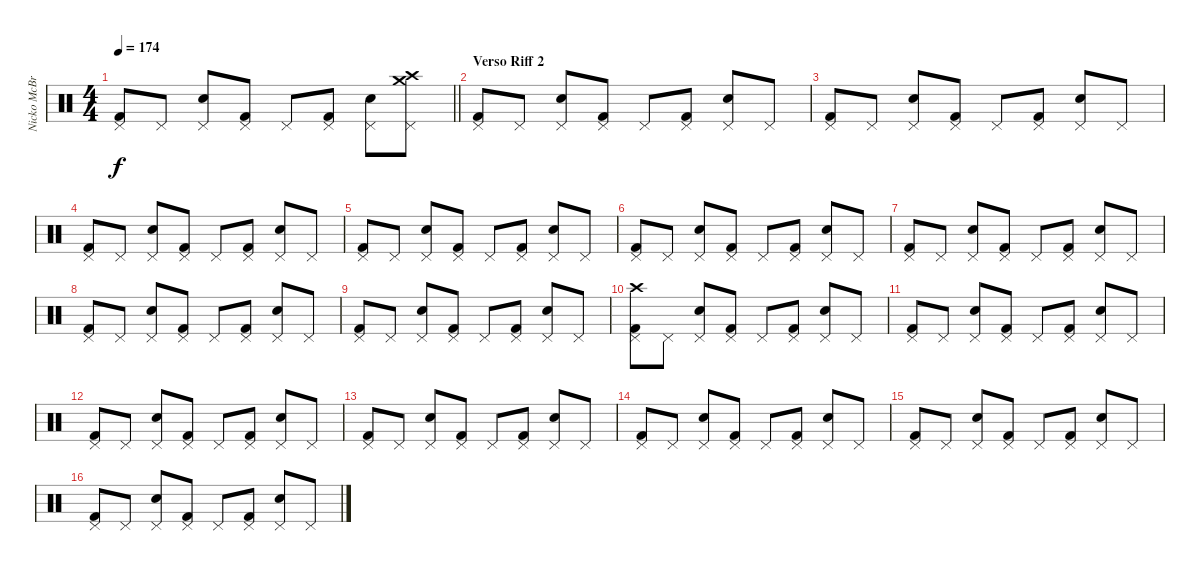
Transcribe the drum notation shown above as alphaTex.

\track ("Nicko McBrain" "Nicko McBr") {instrument percussion}
\staff {score}
\articulation defaults
\ts (4 4)
\tempo 174
\clef neutral
\barLineRight lightlight
\ks c
("Kick (hit) 2" "Pedal Hi-Hat (hit)").8{dy f} "Pedal Hi-Hat (hit)".8 ("Snare (hit) 2" "Pedal Hi-Hat (hit)").8 ("Kick (hit) 2" "Pedal Hi-Hat (hit)").8 "Pedal Hi-Hat (hit)".8 ("Kick (hit) 2" "Pedal Hi-Hat (hit)").8 ("Snare (hit) 2" "Pedal Hi-Hat (hit)").8 ("Pedal Hi-Hat (hit)" "Crash high (hit)" "Crash medium (hit)").8 |
\section ("" "Verso Riff 2")
("Kick (hit) 2" "Pedal Hi-Hat (hit)").8 "Pedal Hi-Hat (hit)".8 ("Snare (hit) 2" "Pedal Hi-Hat (hit)").8 ("Kick (hit) 2" "Pedal Hi-Hat (hit)").8 "Pedal Hi-Hat (hit)".8 ("Kick (hit) 2" "Pedal Hi-Hat (hit)").8 ("Snare (hit) 2" "Pedal Hi-Hat (hit)").8 "Pedal Hi-Hat (hit)".8 |
("Kick (hit) 2" "Pedal Hi-Hat (hit)").8 "Pedal Hi-Hat (hit)".8 ("Snare (hit) 2" "Pedal Hi-Hat (hit)").8 ("Kick (hit) 2" "Pedal Hi-Hat (hit)").8 "Pedal Hi-Hat (hit)".8 ("Kick (hit) 2" "Pedal Hi-Hat (hit)").8 ("Snare (hit) 2" "Pedal Hi-Hat (hit)").8 "Pedal Hi-Hat (hit)".8 |
("Kick (hit) 2" "Pedal Hi-Hat (hit)").8 "Pedal Hi-Hat (hit)".8 ("Snare (hit) 2" "Pedal Hi-Hat (hit)").8 ("Kick (hit) 2" "Pedal Hi-Hat (hit)").8 "Pedal Hi-Hat (hit)".8 ("Kick (hit) 2" "Pedal Hi-Hat (hit)").8 ("Snare (hit) 2" "Pedal Hi-Hat (hit)").8 "Pedal Hi-Hat (hit)".8 |
("Kick (hit) 2" "Pedal Hi-Hat (hit)").8 "Pedal Hi-Hat (hit)".8 ("Snare (hit) 2" "Pedal Hi-Hat (hit)").8 ("Kick (hit) 2" "Pedal Hi-Hat (hit)").8 "Pedal Hi-Hat (hit)".8 ("Kick (hit) 2" "Pedal Hi-Hat (hit)").8 ("Snare (hit) 2" "Pedal Hi-Hat (hit)").8 "Pedal Hi-Hat (hit)".8 |
("Kick (hit) 2" "Pedal Hi-Hat (hit)").8 "Pedal Hi-Hat (hit)".8 ("Snare (hit) 2" "Pedal Hi-Hat (hit)").8 ("Kick (hit) 2" "Pedal Hi-Hat (hit)").8 "Pedal Hi-Hat (hit)".8 ("Kick (hit) 2" "Pedal Hi-Hat (hit)").8 ("Snare (hit) 2" "Pedal Hi-Hat (hit)").8 "Pedal Hi-Hat (hit)".8 |
("Kick (hit) 2" "Pedal Hi-Hat (hit)").8 "Pedal Hi-Hat (hit)".8 ("Snare (hit) 2" "Pedal Hi-Hat (hit)").8 ("Kick (hit) 2" "Pedal Hi-Hat (hit)").8 "Pedal Hi-Hat (hit)".8 ("Kick (hit) 2" "Pedal Hi-Hat (hit)").8 ("Snare (hit) 2" "Pedal Hi-Hat (hit)").8 "Pedal Hi-Hat (hit)".8 |
("Kick (hit) 2" "Pedal Hi-Hat (hit)").8 "Pedal Hi-Hat (hit)".8 ("Snare (hit) 2" "Pedal Hi-Hat (hit)").8 ("Kick (hit) 2" "Pedal Hi-Hat (hit)").8 "Pedal Hi-Hat (hit)".8 ("Kick (hit) 2" "Pedal Hi-Hat (hit)").8 ("Snare (hit) 2" "Pedal Hi-Hat (hit)").8 "Pedal Hi-Hat (hit)".8 |
("Kick (hit) 2" "Pedal Hi-Hat (hit)").8 "Pedal Hi-Hat (hit)".8 ("Snare (hit) 2" "Pedal Hi-Hat (hit)").8 ("Kick (hit) 2" "Pedal Hi-Hat (hit)").8 "Pedal Hi-Hat (hit)".8 ("Kick (hit) 2" "Pedal Hi-Hat (hit)").8 ("Snare (hit) 2" "Pedal Hi-Hat (hit)").8 "Pedal Hi-Hat (hit)".8 |
("Kick (hit) 2" "Pedal Hi-Hat (hit)" "Crash high (hit)").8 "Pedal Hi-Hat (hit)".8 ("Snare (hit) 2" "Pedal Hi-Hat (hit)").8 ("Kick (hit) 2" "Pedal Hi-Hat (hit)").8 "Pedal Hi-Hat (hit)".8 ("Kick (hit) 2" "Pedal Hi-Hat (hit)").8 ("Snare (hit) 2" "Pedal Hi-Hat (hit)").8 "Pedal Hi-Hat (hit)".8 |
("Kick (hit) 2" "Pedal Hi-Hat (hit)").8 "Pedal Hi-Hat (hit)".8 ("Snare (hit) 2" "Pedal Hi-Hat (hit)").8 ("Kick (hit) 2" "Pedal Hi-Hat (hit)").8 "Pedal Hi-Hat (hit)".8 ("Kick (hit) 2" "Pedal Hi-Hat (hit)").8 ("Snare (hit) 2" "Pedal Hi-Hat (hit)").8 "Pedal Hi-Hat (hit)".8 |
("Kick (hit) 2" "Pedal Hi-Hat (hit)").8 "Pedal Hi-Hat (hit)".8 ("Snare (hit) 2" "Pedal Hi-Hat (hit)").8 ("Kick (hit) 2" "Pedal Hi-Hat (hit)").8 "Pedal Hi-Hat (hit)".8 ("Kick (hit) 2" "Pedal Hi-Hat (hit)").8 ("Snare (hit) 2" "Pedal Hi-Hat (hit)").8 "Pedal Hi-Hat (hit)".8 |
("Kick (hit) 2" "Pedal Hi-Hat (hit)").8 "Pedal Hi-Hat (hit)".8 ("Snare (hit) 2" "Pedal Hi-Hat (hit)").8 ("Kick (hit) 2" "Pedal Hi-Hat (hit)").8 "Pedal Hi-Hat (hit)".8 ("Kick (hit) 2" "Pedal Hi-Hat (hit)").8 ("Snare (hit) 2" "Pedal Hi-Hat (hit)").8 "Pedal Hi-Hat (hit)".8 |
("Kick (hit) 2" "Pedal Hi-Hat (hit)").8 "Pedal Hi-Hat (hit)".8 ("Snare (hit) 2" "Pedal Hi-Hat (hit)").8 ("Kick (hit) 2" "Pedal Hi-Hat (hit)").8 "Pedal Hi-Hat (hit)".8 ("Kick (hit) 2" "Pedal Hi-Hat (hit)").8 ("Snare (hit) 2" "Pedal Hi-Hat (hit)").8 "Pedal Hi-Hat (hit)".8 |
("Kick (hit) 2" "Pedal Hi-Hat (hit)").8 "Pedal Hi-Hat (hit)".8 ("Snare (hit) 2" "Pedal Hi-Hat (hit)").8 ("Kick (hit) 2" "Pedal Hi-Hat (hit)").8 "Pedal Hi-Hat (hit)".8 ("Kick (hit) 2" "Pedal Hi-Hat (hit)").8 ("Snare (hit) 2" "Pedal Hi-Hat (hit)").8 "Pedal Hi-Hat (hit)".8 |
("Kick (hit) 2" "Pedal Hi-Hat (hit)").8 "Pedal Hi-Hat (hit)".8 ("Snare (hit) 2" "Pedal Hi-Hat (hit)").8 ("Kick (hit) 2" "Pedal Hi-Hat (hit)").8 "Pedal Hi-Hat (hit)".8 ("Kick (hit) 2" "Pedal Hi-Hat (hit)").8 ("Snare (hit) 2" "Pedal Hi-Hat (hit)").8 "Pedal Hi-Hat (hit)".8
